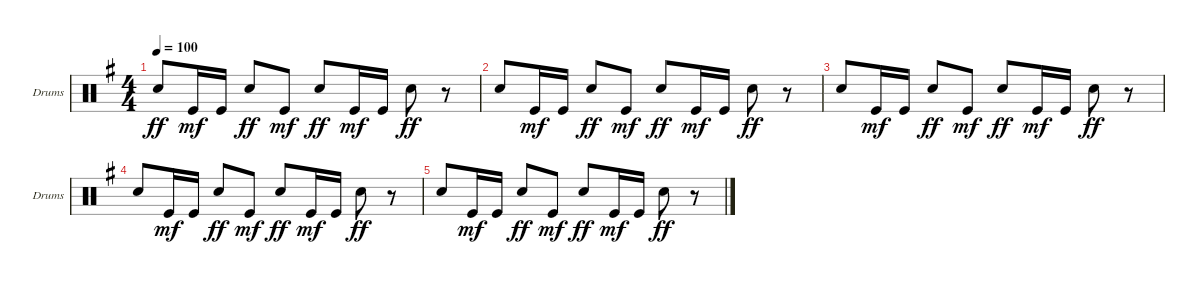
\defaultSystemsLayout 4
\bracketExtendMode groupsimilarinstruments
\singleTrackTrackNamePolicy allsystems
\multiTrackTrackNamePolicy allsystems
\firstSystemTrackNameOrientation horizontal
\otherSystemsTrackNameOrientation horizontal
\track ("Drumkit" "Drums") {instrument percussion}
\staff {score}
\articulation defaults
\ts (4 4)
\tempo 100
\clef neutral
\ks g "Snare (hit) 2".8{dy ff} "Kick (hit)".16{dy mf} "Kick (hit)".16 "Snare (hit) 2".8{dy ff} "Kick (hit)".8{dy mf} "Snare (hit) 2".8{dy ff} "Kick (hit)".16{dy mf} "Kick (hit)".16 "Snare (hit) 2".8{dy ff}
r.8 |
"Snare (hit) 2".8 "Kick (hit)".16{dy mf} "Kick (hit)".16 "Snare (hit) 2".8{dy ff} "Kick (hit)".8{dy mf} "Snare (hit) 2".8{dy ff} "Kick (hit)".16{dy mf} "Kick (hit)".16 "Snare (hit) 2".8{dy ff} r.8 |
"Snare (hit) 2".8 "Kick (hit)".16{dy mf} "Kick (hit)".16 "Snare (hit) 2".8{dy ff} "Kick (hit)".8{dy mf} "Snare (hit) 2".8{dy ff} "Kick (hit)".16{dy mf} "Kick (hit)".16 "Snare (hit) 2".8{dy ff} r.8 |
"Snare (hit) 2".8 "Kick (hit)".16{dy mf} "Kick (hit)".16 "Snare (hit) 2".8{dy ff} "Kick (hit)".8{dy mf} "Snare (hit) 2".8{dy ff} "Kick (hit)".16{dy mf} "Kick (hit)".16 "Snare (hit) 2".8{dy ff} r.8 |
"Snare (hit) 2".8 "Kick (hit)".16{dy mf} "Kick (hit)".16 "Snare (hit) 2".8{dy ff} "Kick (hit)".8{dy mf} "Snare (hit) 2".8{dy ff} "Kick (hit)".16{dy mf} "Kick (hit)".16 "Snare (hit) 2".8{dy ff} r.8
